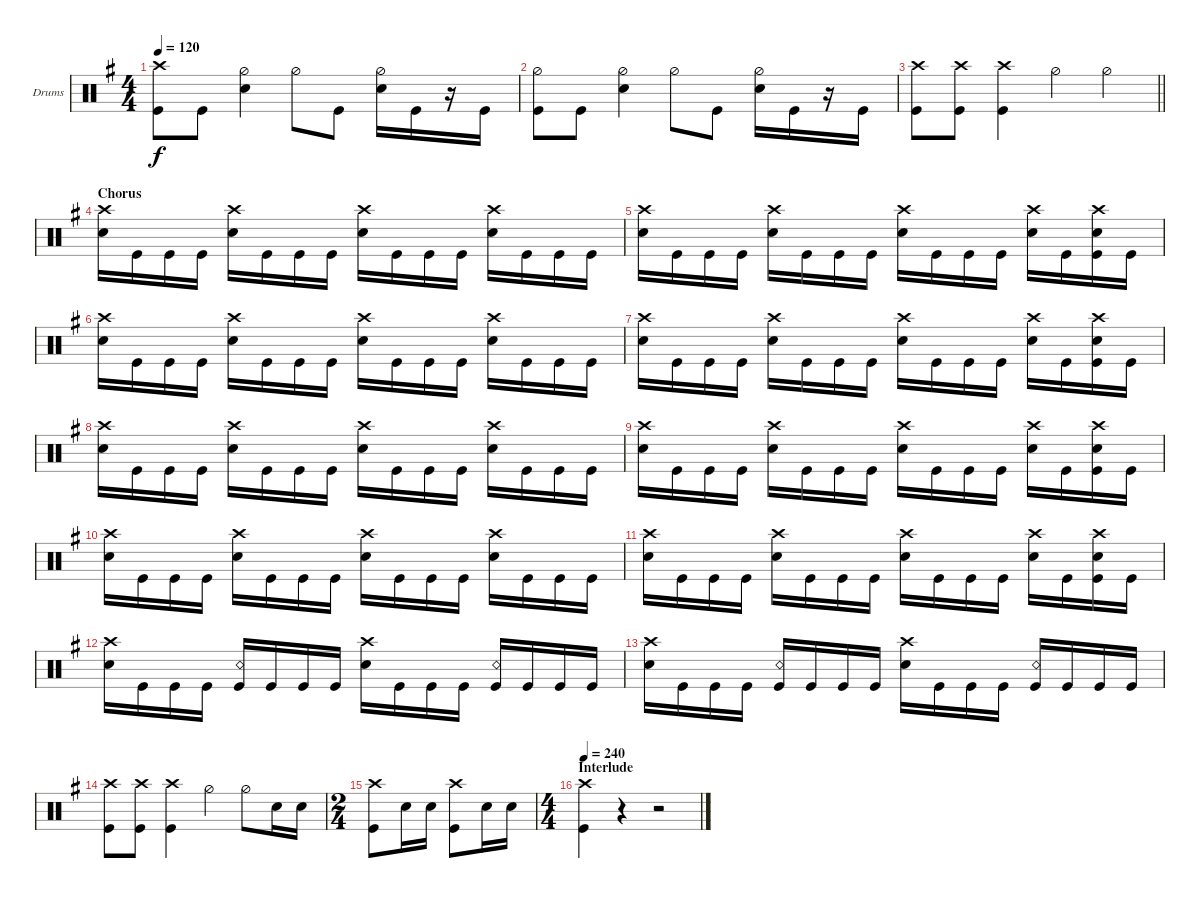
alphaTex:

\defaultSystemsLayout 4
\bracketExtendMode groupsimilarinstruments
\firstSystemTrackNameOrientation horizontal
\otherSystemsTrackNameOrientation horizontal
\track ("Drums" "Drums") {instrument percussion}
\staff {score}
\articulation defaults
\ts (4 4)
\tempo 120
\clef neutral
\ks g
("Kick (hit)" "Crash high (hit)").8{dy f} "Kick (hit)".8 ("Snare (hit) 2" "Hi-Hat (half)").4 "Hi-Hat (half)".8 "Kick (hit)".8 ("Snare (hit) 2" "Hi-Hat (half)").16 "Kick (hit)".16 r.16 "Kick (hit)".16 |
("Kick (hit)" "Hi-Hat (half)").8 "Kick (hit)".8 ("Snare (hit) 2" "Hi-Hat (half)").4 "Hi-Hat (half)".8 "Kick (hit)".8 ("Snare (hit) 2" "Hi-Hat (half)").16 "Kick (hit)".16 r.16 "Kick (hit)".16 |
\barLineRight lightlight
("Kick (hit)" "Crash high (hit)").8 ("Kick (hit)" "Crash high (hit)").8 ("Kick (hit)" "Crash high (hit)").4 "Hi-Hat (half)".4 "Hi-Hat (half)".4 |
\section ("" "Chorus")
("Snare (hit) 2" "Crash high (hit)").16 "Kick (hit)".16 "Kick (hit)".16 "Kick (hit)".16 ("Snare (hit) 2" "Crash high (hit)").16 "Kick (hit)".16 "Kick (hit)".16 "Kick (hit)".16 ("Snare (hit) 2" "Crash high (hit)").16 "Kick (hit)".16 "Kick (hit)".16 "Kick (hit)".16 ("Snare (hit) 2" "Crash high (hit)").16 "Kick (hit)".16 "Kick (hit)".16 "Kick (hit)".16 |
("Snare (hit) 2" "Crash high (hit)").16 "Kick (hit)".16 "Kick (hit)".16 "Kick (hit)".16 ("Snare (hit) 2" "Crash high (hit)").16 "Kick (hit)".16 "Kick (hit)".16 "Kick (hit)".16 ("Snare (hit) 2" "Crash high (hit)").16 "Kick (hit)".16 "Kick (hit)".16 "Kick (hit)".16 ("Snare (hit) 2" "Crash high (hit)").16 "Kick (hit)".16 ("Kick (hit)" "Snare (hit) 2" "Crash high (hit)").16 "Kick (hit)".16 |
("Snare (hit) 2" "Crash high (hit)").16 "Kick (hit)".16 "Kick (hit)".16 "Kick (hit)".16 ("Snare (hit) 2" "Crash high (hit)").16 "Kick (hit)".16 "Kick (hit)".16 "Kick (hit)".16 ("Snare (hit) 2" "Crash high (hit)").16 "Kick (hit)".16 "Kick (hit)".16 "Kick (hit)".16 ("Snare (hit) 2" "Crash high (hit)").16 "Kick (hit)".16 "Kick (hit)".16 "Kick (hit)".16 |
("Snare (hit) 2" "Crash high (hit)").16 "Kick (hit)".16 "Kick (hit)".16 "Kick (hit)".16 ("Snare (hit) 2" "Crash high (hit)").16 "Kick (hit)".16 "Kick (hit)".16 "Kick (hit)".16 ("Snare (hit) 2" "Crash high (hit)").16 "Kick (hit)".16 "Kick (hit)".16 "Kick (hit)".16 ("Snare (hit) 2" "Crash high (hit)").16 "Kick (hit)".16 ("Kick (hit)" "Snare (hit) 2" "Crash high (hit)").16 "Kick (hit)".16 |
("Snare (hit) 2" "Crash high (hit)").16 "Kick (hit)".16 "Kick (hit)".16 "Kick (hit)".16 ("Snare (hit) 2" "Crash high (hit)").16 "Kick (hit)".16 "Kick (hit)".16 "Kick (hit)".16 ("Snare (hit) 2" "Crash high (hit)").16 "Kick (hit)".16 "Kick (hit)".16 "Kick (hit)".16 ("Snare (hit) 2" "Crash high (hit)").16 "Kick (hit)".16 "Kick (hit)".16 "Kick (hit)".16 |
("Snare (hit) 2" "Crash high (hit)").16 "Kick (hit)".16 "Kick (hit)".16 "Kick (hit)".16 ("Snare (hit) 2" "Crash high (hit)").16 "Kick (hit)".16 "Kick (hit)".16 "Kick (hit)".16 ("Snare (hit) 2" "Crash high (hit)").16 "Kick (hit)".16 "Kick (hit)".16 "Kick (hit)".16 ("Snare (hit) 2" "Crash high (hit)").16 "Kick (hit)".16 ("Kick (hit)" "Snare (hit) 2" "Crash high (hit)").16 "Kick (hit)".16 |
("Snare (hit) 2" "Crash high (hit)").16 "Kick (hit)".16 "Kick (hit)".16 "Kick (hit)".16 ("Snare (hit) 2" "Crash high (hit)").16 "Kick (hit)".16 "Kick (hit)".16 "Kick (hit)".16 ("Snare (hit) 2" "Crash high (hit)").16 "Kick (hit)".16 "Kick (hit)".16 "Kick (hit)".16 ("Snare (hit) 2" "Crash high (hit)").16 "Kick (hit)".16 "Kick (hit)".16 "Kick (hit)".16 |
("Snare (hit) 2" "Crash high (hit)").16 "Kick (hit)".16 "Kick (hit)".16 "Kick (hit)".16 ("Snare (hit) 2" "Crash high (hit)").16 "Kick (hit)".16 "Kick (hit)".16 "Kick (hit)".16 ("Snare (hit) 2" "Crash high (hit)").16 "Kick (hit)".16 "Kick (hit)".16 "Kick (hit)".16 ("Snare (hit) 2" "Crash high (hit)").16 "Kick (hit)".16 ("Kick (hit)" "Snare (hit) 2" "Crash high (hit)").16 "Kick (hit)".16 |
("Snare (hit) 2" "Crash high (hit)").16 "Kick (hit)".16 "Kick (hit)".16 "Kick (hit)".16 ("Kick (hit)" "Snare (rim shot)").16 "Kick (hit)".16 "Kick (hit)".16 "Kick (hit)".16 ("Snare (hit) 2" "Crash high (hit)").16 "Kick (hit)".16 "Kick (hit)".16 "Kick (hit)".16 ("Kick (hit)" "Snare (rim shot)").16 "Kick (hit)".16 "Kick (hit)".16 "Kick (hit)".16 |
("Snare (hit) 2" "Crash high (hit)").16 "Kick (hit)".16 "Kick (hit)".16 "Kick (hit)".16 ("Kick (hit)" "Snare (rim shot)").16 "Kick (hit)".16 "Kick (hit)".16 "Kick (hit)".16 ("Snare (hit) 2" "Crash high (hit)").16 "Kick (hit)".16 "Kick (hit)".16 "Kick (hit)".16 ("Kick (hit)" "Snare (rim shot)").16 "Kick (hit)".16 "Kick (hit)".16 "Kick (hit)".16 |
("Kick (hit)" "Crash high (hit)").8 ("Kick (hit)" "Crash high (hit)").8 ("Kick (hit)" "Crash high (hit)").4 "Hi-Hat (half)".4 "Hi-Hat (half)".8 "Snare (hit) 2".16 "Snare (hit) 2".16 |
\ts (2 4)
("Kick (hit)" "Crash high (hit)").8 "Snare (hit) 2".16 "Snare (hit) 2".16 ("Kick (hit)" "Crash high (hit)").8 "Snare (hit) 2".16 "Snare (hit) 2".16 |
\ts (4 4)
\section ("" "Interlude")
\tempo 240
("Kick (hit)" "Crash high (hit)").4 r.4 r.2
